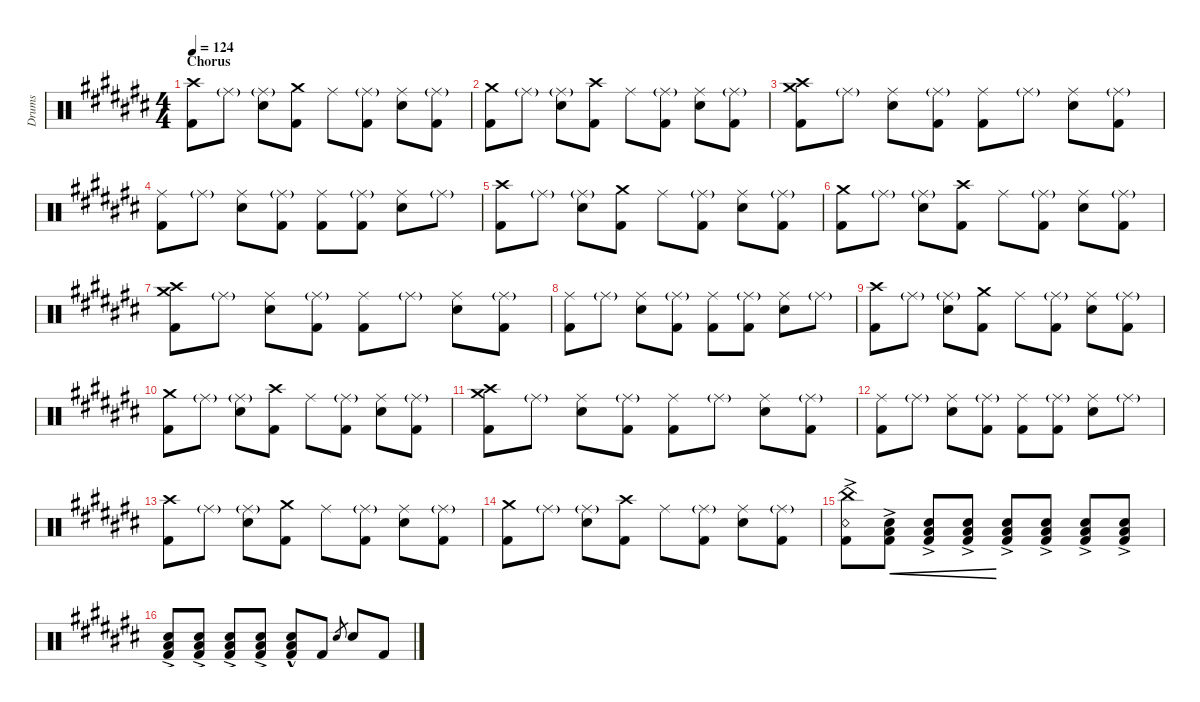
\hideDynamics
\bracketExtendMode nobrackets
\otherSystemsTrackNameOrientation horizontal
\track ("Drumkit" "Drums") {defaultSystemsLayout 4 instrument percussion}
\staff {score}
\articulation defaults
\ts (4 4)
\section ("" "Chorus")
\tempo 124
\clef neutral
\ks c#
("Kick (hit) 2"{acc forcenatural} "Crash high (hit)"{acc forcenatural}).8{dy ff beam Down} "Ride (middle)"{g acc forcenatural}.8{beam Down} ("Ride (middle)"{g acc forcenatural} "Snare (hit) 2"{acc forcenatural}).8{beam Down} ("Kick (hit) 2"{acc forcenatural} "Crash medium (hit)"{acc forcenatural}).8{beam Down} "Ride (middle)"{acc forcenatural}.8{beam Down} ("Ride (middle)"{g acc forcenatural} "Kick (hit) 2"{acc forcenatural}).8{beam Down} ("Ride (middle)"{acc forcenatural} "Snare (hit) 2"{acc forcenatural}).8{beam Down} ("Ride (middle)"{g acc forcenatural} "Kick (hit) 2"{acc forcenatural}).8{beam Down} |
("Crash medium (hit)"{acc forcenatural} "Kick (hit) 2"{acc forcenatural}).8{beam Down} "Ride (middle)"{g acc forcenatural}.8{beam Down} ("Ride (middle)"{g acc forcenatural} "Snare (hit) 2"{acc forcenatural}).8{beam Down} ("Crash high (hit)"{acc forcenatural} "Kick (hit) 2"{acc forcenatural}).8{beam Down} "Ride (middle)"{acc forcenatural}.8{beam Down} ("Ride (middle)"{g acc forcenatural} "Kick (hit) 2"{acc forcenatural}).8{beam Down} ("Ride (middle)"{acc forcenatural} "Snare (hit) 2"{acc forcenatural}).8{beam Down} ("Ride (middle)"{g acc forcenatural} "Kick (hit) 2"{acc forcenatural}).8{beam Down} |
("Crash medium (hit)"{acc forcenatural} "Kick (hit) 2"{acc forcenatural} "Crash high (hit)"{acc forcenatural}).8{beam Down} "Ride (middle)"{g acc forcenatural}.8{beam Down} ("Ride (middle)"{acc forcenatural} "Snare (hit) 2"{acc forcenatural}).8{beam Down} ("Ride (middle)"{g acc forcenatural} "Kick (hit) 2"{acc forcenatural}).8{beam Down} ("Ride (middle)"{acc forcenatural} "Kick (hit) 2"{acc forcenatural}).8{beam Down} "Ride (middle)"{g acc forcenatural}.8{beam Down} ("Ride (middle)"{acc forcenatural} "Snare (hit) 2"{acc forcenatural}).8{beam Down} ("Ride (middle)"{g acc forcenatural} "Kick (hit) 2"{acc forcenatural}).8{beam Down} |
("Ride (middle)"{acc forcenatural} "Kick (hit) 2"{acc forcenatural}).8{beam Down} "Ride (middle)"{g acc forcenatural}.8{beam Down} ("Ride (middle)"{acc forcenatural} "Snare (hit) 2"{acc forcenatural}).8{beam Down} ("Ride (middle)"{g acc forcenatural} "Kick (hit) 2"{acc forcenatural}).8{beam Down} ("Ride (middle)"{acc forcenatural} "Kick (hit) 2"{acc forcenatural}).8{beam Down} ("Ride (middle)"{g acc forcenatural} "Kick (hit) 2"{acc forcenatural}).8{beam Down} ("Ride (middle)"{acc forcenatural} "Snare (hit) 2"{acc forcenatural}).8{beam Down} "Ride (middle)"{g acc forcenatural}.8{beam Down} |
("Kick (hit) 2"{acc forcenatural} "Crash high (hit)"{acc forcenatural}).8{beam Down} "Ride (middle)"{g acc forcenatural}.8{beam Down} ("Ride (middle)"{g acc forcenatural} "Snare (hit) 2"{acc forcenatural}).8{beam Down} ("Kick (hit) 2"{acc forcenatural} "Crash medium (hit)"{acc forcenatural}).8{beam Down} "Ride (middle)"{acc forcenatural}.8{beam Down} ("Ride (middle)"{g acc forcenatural} "Kick (hit) 2"{acc forcenatural}).8{beam Down} ("Ride (middle)"{acc forcenatural} "Snare (hit) 2"{acc forcenatural}).8{beam Down} ("Ride (middle)"{g acc forcenatural} "Kick (hit) 2"{acc forcenatural}).8{beam Down} |
("Crash medium (hit)"{acc forcenatural} "Kick (hit) 2"{acc forcenatural}).8{beam Down} "Ride (middle)"{g acc forcenatural}.8{beam Down} ("Ride (middle)"{g acc forcenatural} "Snare (hit) 2"{acc forcenatural}).8{beam Down} ("Crash high (hit)"{acc forcenatural} "Kick (hit) 2"{acc forcenatural}).8{beam Down} "Ride (middle)"{acc forcenatural}.8{beam Down} ("Ride (middle)"{g acc forcenatural} "Kick (hit) 2"{acc forcenatural}).8{beam Down} ("Ride (middle)"{acc forcenatural} "Snare (hit) 2"{acc forcenatural}).8{beam Down} ("Ride (middle)"{g acc forcenatural} "Kick (hit) 2"{acc forcenatural}).8{beam Down} |
("Crash medium (hit)"{acc forcenatural} "Kick (hit) 2"{acc forcenatural} "Crash high (hit)"{acc forcenatural}).8{beam Down} "Ride (middle)"{g acc forcenatural}.8{beam Down} ("Ride (middle)"{acc forcenatural} "Snare (hit) 2"{acc forcenatural}).8{beam Down} ("Ride (middle)"{g acc forcenatural} "Kick (hit) 2"{acc forcenatural}).8{beam Down} ("Ride (middle)"{acc forcenatural} "Kick (hit) 2"{acc forcenatural}).8{beam Down} "Ride (middle)"{g acc forcenatural}.8{beam Down} ("Ride (middle)"{acc forcenatural} "Snare (hit) 2"{acc forcenatural}).8{beam Down} ("Ride (middle)"{g acc forcenatural} "Kick (hit) 2"{acc forcenatural}).8{beam Down} |
("Ride (middle)"{acc forcenatural} "Kick (hit) 2"{acc forcenatural}).8{beam Down} "Ride (middle)"{g acc forcenatural}.8{beam Down} ("Ride (middle)"{acc forcenatural} "Snare (hit) 2"{acc forcenatural}).8{beam Down} ("Ride (middle)"{g acc forcenatural} "Kick (hit) 2"{acc forcenatural}).8{beam Down} ("Ride (middle)"{acc forcenatural} "Kick (hit) 2"{acc forcenatural}).8{beam Down} ("Ride (middle)"{g acc forcenatural} "Kick (hit) 2"{acc forcenatural}).8{beam Down} ("Ride (middle)"{acc forcenatural} "Snare (hit) 2"{acc forcenatural}).8{beam Down} "Ride (middle)"{g acc forcenatural}.8{beam Down} |
("Kick (hit) 2"{acc forcenatural} "Crash high (hit)"{acc forcenatural}).8{beam Down} "Ride (middle)"{g acc forcenatural}.8{beam Down} ("Ride (middle)"{g acc forcenatural} "Snare (hit) 2"{acc forcenatural}).8{beam Down} ("Kick (hit) 2"{acc forcenatural} "Crash medium (hit)"{acc forcenatural}).8{beam Down} "Ride (middle)"{acc forcenatural}.8{beam Down} ("Ride (middle)"{g acc forcenatural} "Kick (hit) 2"{acc forcenatural}).8{beam Down} ("Ride (middle)"{acc forcenatural} "Snare (hit) 2"{acc forcenatural}).8{beam Down} ("Ride (middle)"{g acc forcenatural} "Kick (hit) 2"{acc forcenatural}).8{beam Down} |
("Crash medium (hit)"{acc forcenatural} "Kick (hit) 2"{acc forcenatural}).8{beam Down} "Ride (middle)"{g acc forcenatural}.8{beam Down} ("Ride (middle)"{g acc forcenatural} "Snare (hit) 2"{acc forcenatural}).8{beam Down} ("Crash high (hit)"{acc forcenatural} "Kick (hit) 2"{acc forcenatural}).8{beam Down} "Ride (middle)"{acc forcenatural}.8{beam Down} ("Ride (middle)"{g acc forcenatural} "Kick (hit) 2"{acc forcenatural}).8{beam Down} ("Ride (middle)"{acc forcenatural} "Snare (hit) 2"{acc forcenatural}).8{beam Down} ("Ride (middle)"{g acc forcenatural} "Kick (hit) 2"{acc forcenatural}).8{beam Down} |
("Crash medium (hit)"{acc forcenatural} "Kick (hit) 2"{acc forcenatural} "Crash high (hit)"{acc forcenatural}).8{beam Down} "Ride (middle)"{g acc forcenatural}.8{beam Down} ("Ride (middle)"{acc forcenatural} "Snare (hit) 2"{acc forcenatural}).8{beam Down} ("Ride (middle)"{g acc forcenatural} "Kick (hit) 2"{acc forcenatural}).8{beam Down} ("Ride (middle)"{acc forcenatural} "Kick (hit) 2"{acc forcenatural}).8{beam Down} "Ride (middle)"{g acc forcenatural}.8{beam Down} ("Ride (middle)"{acc forcenatural} "Snare (hit) 2"{acc forcenatural}).8{beam Down} ("Ride (middle)"{g acc forcenatural} "Kick (hit) 2"{acc forcenatural}).8{beam Down} |
("Ride (middle)"{acc forcenatural} "Kick (hit) 2"{acc forcenatural}).8{beam Down} "Ride (middle)"{g acc forcenatural}.8{beam Down} ("Ride (middle)"{acc forcenatural} "Snare (hit) 2"{acc forcenatural}).8{beam Down} ("Ride (middle)"{g acc forcenatural} "Kick (hit) 2"{acc forcenatural}).8{beam Down} ("Ride (middle)"{acc forcenatural} "Kick (hit) 2"{acc forcenatural}).8{beam Down} ("Ride (middle)"{g acc forcenatural} "Kick (hit) 2"{acc forcenatural}).8{beam Down} ("Ride (middle)"{acc forcenatural} "Snare (hit) 2"{acc forcenatural}).8{beam Down} "Ride (middle)"{g acc forcenatural}.8{beam Down} |
("Kick (hit) 2"{acc forcenatural} "Crash high (hit)"{acc forcenatural}).8{beam Down} "Ride (middle)"{g acc forcenatural}.8{beam Down} ("Ride (middle)"{g acc forcenatural} "Snare (hit) 2"{acc forcenatural}).8{beam Down} ("Kick (hit) 2"{acc forcenatural} "Crash medium (hit)"{acc forcenatural}).8{beam Down} "Ride (middle)"{acc forcenatural}.8{beam Down} ("Ride (middle)"{g acc forcenatural} "Kick (hit) 2"{acc forcenatural}).8{beam Down} ("Ride (middle)"{acc forcenatural} "Snare (hit) 2"{acc forcenatural}).8{beam Down} ("Ride (middle)"{g acc forcenatural} "Kick (hit) 2"{acc forcenatural}).8{beam Down} |
("Crash medium (hit)"{acc forcenatural} "Kick (hit) 2"{acc forcenatural}).8{beam Down} "Ride (middle)"{g acc forcenatural}.8{beam Down} ("Ride (middle)"{g acc forcenatural} "Snare (hit) 2"{acc forcenatural}).8{beam Down} ("Crash high (hit)"{acc forcenatural} "Kick (hit) 2"{acc forcenatural}).8{beam Down} "Ride (middle)"{acc forcenatural}.8{beam Down} ("Ride (middle)"{g acc forcenatural} "Kick (hit) 2"{acc forcenatural}).8{beam Down} ("Ride (middle)"{acc forcenatural} "Snare (hit) 2"{acc forcenatural}).8{beam Down} ("Ride (middle)"{g acc forcenatural} "Kick (hit) 2"{acc forcenatural}).8{beam Down} |
("Snare (rim shot)"{ac acc forcenatural} "China (hit)"{acc forcenatural} "Kick (hit) 2"{acc forcenatural}).8{beam Down} ("Low Tom (hit)"{ac acc forcenatural} "Snare (hit) 2"{acc forcenatural} "Kick (hit) 2"{acc forcenatural}).8{cre dy p beam Down} ("Low Tom (hit)"{ac acc forcenatural} "Snare (hit) 2"{acc forcenatural} "Kick (hit) 2"{acc forcenatural}).8{cre beam Up} ("Low Tom (hit)"{ac acc forcenatural} "Snare (hit) 2"{acc forcenatural} "Kick (hit) 2"{acc forcenatural}).8{cre beam Up} ("Low Tom (hit)"{ac acc forcenatural} "Snare (hit) 2"{acc forcenatural} "Kick (hit) 2"{acc forcenatural}).8{dy mp beam Up} ("Low Tom (hit)"{ac acc forcenatural} "Snare (hit) 2"{acc forcenatural} "Kick (hit) 2"{acc forcenatural}).8{beam Up} ("Low Tom (hit)"{ac acc forcenatural} "Snare (hit) 2"{acc forcenatural} "Kick (hit) 2"{acc forcenatural}).8{dy mf beam Up} ("Low Tom (hit)"{ac acc forcenatural} "Snare (hit) 2"{acc forcenatural} "Kick (hit) 2"{acc forcenatural}).8{beam Up} |
("Low Tom (hit)"{ac acc forcenatural} "Snare (hit) 2"{acc forcenatural} "Kick (hit) 2"{acc forcenatural}).8{dy f beam Up} ("Low Tom (hit)"{ac acc forcenatural} "Snare (hit) 2"{acc forcenatural} "Kick (hit) 2"{acc forcenatural}).8{beam Up} ("Low Tom (hit)"{ac acc forcenatural} "Snare (hit) 2"{acc forcenatural} "Kick (hit) 2"{acc forcenatural}).8{dy ff beam Up} ("Low Tom (hit)"{ac acc forcenatural} "Snare (hit) 2"{acc forcenatural} "Kick (hit) 2"{acc forcenatural}).8{beam Up} ("Low Tom (hit)"{hac acc forcenatural} "Snare (hit) 2"{acc forcenatural} "Kick (hit) 2"{acc forcenatural}).8{beam Up} "Kick (hit) 2"{acc forcenatural}.8{beam Up} "Snare (hit) 2"{acc forcenatural}.8{gr beam Up} "Snare (hit) 2"{acc forcenatural}.8{beam Up} "Kick (hit) 2"{acc forcenatural}.8{beam Up}
